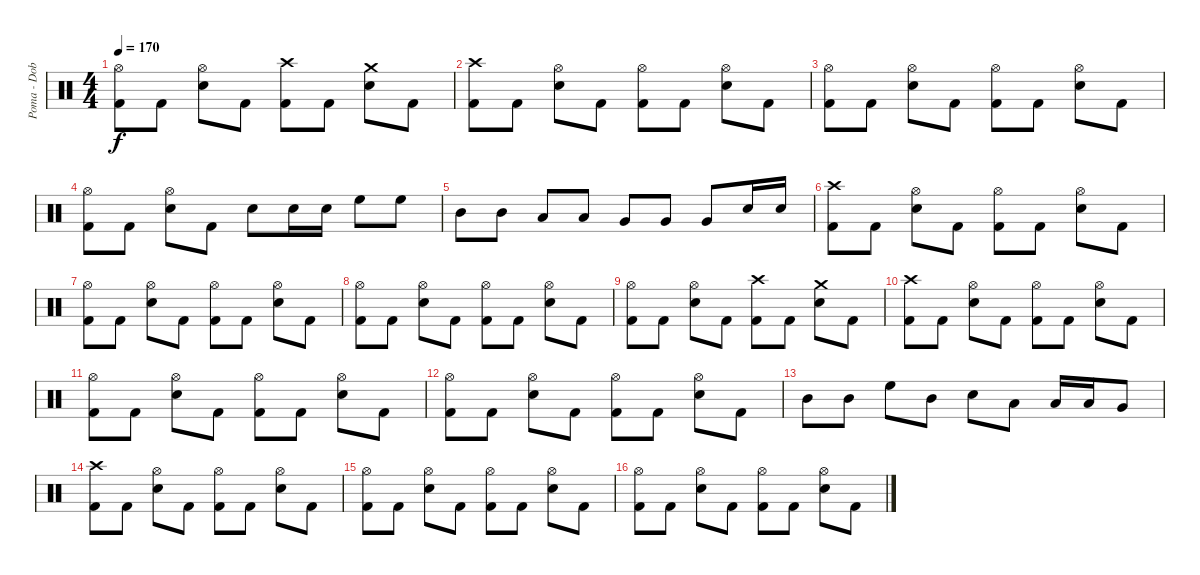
\track ("Poma - Dob" "Poma - Dob") {instrument percussion}
\staff {score}
\articulation defaults
\ts (4 4)
\tempo 170
\clef neutral
\ks c
("Hi-Hat (open)" "Kick (hit) 2").8{dy f} "Kick (hit) 2".8 ("Hi-Hat (open)" "Electric Snare (hit)").8 "Kick (hit) 2".8 ("Crash high (hit)" "Kick (hit) 2").8 "Kick (hit) 2".8 ("Crash medium (hit)" "Electric Snare (hit)").8 "Kick (hit) 2".8 |
("Crash high (hit)" "Kick (hit) 2").8 "Kick (hit) 2".8 ("Hi-Hat (open)" "Electric Snare (hit)").8 "Kick (hit) 2".8 ("Hi-Hat (open)" "Kick (hit) 2").8 "Kick (hit) 2".8 ("Hi-Hat (open)" "Electric Snare (hit)").8 "Kick (hit) 2".8 |
("Hi-Hat (open)" "Kick (hit) 2").8 "Kick (hit) 2".8 ("Hi-Hat (open)" "Electric Snare (hit)").8 "Kick (hit) 2".8 ("Hi-Hat (open)" "Kick (hit) 2").8 "Kick (hit) 2".8 ("Hi-Hat (open)" "Electric Snare (hit)").8 "Kick (hit) 2".8 |
("Hi-Hat (open)" "Kick (hit) 2").8 "Kick (hit) 2".8 ("Hi-Hat (open)" "Electric Snare (hit)").8 "Kick (hit) 2".8 "Electric Snare (hit)".8 "Electric Snare (hit)".16 "Electric Snare (hit)".16 "High Floor Tom (hit)".8 "High Floor Tom (hit)".8 |
"Mid Tom (hit)".8 "Mid Tom (hit)".8 "Low Tom (hit)".8 "Low Tom (hit)".8 "Very Low Tom (hit)".8 "Very Low Tom (hit)".8 "Very Low Tom (hit)".8 "Electric Snare (hit)".16 "Electric Snare (hit)".16 |
("Crash high (hit)" "Kick (hit) 2").8 "Kick (hit) 2".8 ("Hi-Hat (open)" "Electric Snare (hit)").8 "Kick (hit) 2".8 ("Hi-Hat (open)" "Kick (hit) 2").8 "Kick (hit) 2".8 ("Hi-Hat (open)" "Electric Snare (hit)").8 "Kick (hit) 2".8 |
("Hi-Hat (open)" "Kick (hit) 2").8 "Kick (hit) 2".8 ("Hi-Hat (open)" "Electric Snare (hit)").8 "Kick (hit) 2".8 ("Hi-Hat (open)" "Kick (hit) 2").8 "Kick (hit) 2".8 ("Hi-Hat (open)" "Electric Snare (hit)").8 "Kick (hit) 2".8 |
("Hi-Hat (open)" "Kick (hit) 2").8 "Kick (hit) 2".8 ("Hi-Hat (open)" "Electric Snare (hit)").8 "Kick (hit) 2".8 ("Hi-Hat (open)" "Kick (hit) 2").8 "Kick (hit) 2".8 ("Hi-Hat (open)" "Electric Snare (hit)").8 "Kick (hit) 2".8 |
("Hi-Hat (open)" "Kick (hit) 2").8 "Kick (hit) 2".8 ("Hi-Hat (open)" "Electric Snare (hit)").8 "Kick (hit) 2".8 ("Crash high (hit)" "Kick (hit) 2").8 "Kick (hit) 2".8 ("Crash medium (hit)" "Electric Snare (hit)").8 "Kick (hit) 2".8 |
("Crash high (hit)" "Kick (hit) 2").8 "Kick (hit) 2".8 ("Hi-Hat (open)" "Electric Snare (hit)").8 "Kick (hit) 2".8 ("Hi-Hat (open)" "Kick (hit) 2").8 "Kick (hit) 2".8 ("Hi-Hat (open)" "Electric Snare (hit)").8 "Kick (hit) 2".8 |
("Hi-Hat (open)" "Kick (hit) 2").8 "Kick (hit) 2".8 ("Hi-Hat (open)" "Electric Snare (hit)").8 "Kick (hit) 2".8 ("Hi-Hat (open)" "Kick (hit) 2").8 "Kick (hit) 2".8 ("Hi-Hat (open)" "Electric Snare (hit)").8 "Kick (hit) 2".8 |
("Hi-Hat (open)" "Kick (hit) 2").8 "Kick (hit) 2".8 ("Hi-Hat (open)" "Electric Snare (hit)").8 "Kick (hit) 2".8 ("Hi-Hat (open)" "Kick (hit) 2").8 "Kick (hit) 2".8 ("Hi-Hat (open)" "Electric Snare (hit)").8 "Kick (hit) 2".8 |
"Mid Tom (hit)".8 "Mid Tom (hit)".8 "High Floor Tom (hit)".8 "Mid Tom (hit)".8 "Electric Snare (hit)".8 "Low Tom (hit)".8 "Low Tom (hit)".16 "Low Tom (hit)".16 "Very Low Tom (hit)".8 |
("Crash high (hit)" "Kick (hit) 2").8 "Kick (hit) 2".8 ("Hi-Hat (open)" "Electric Snare (hit)").8 "Kick (hit) 2".8 ("Hi-Hat (open)" "Kick (hit) 2").8 "Kick (hit) 2".8 ("Hi-Hat (open)" "Electric Snare (hit)").8 "Kick (hit) 2".8 |
("Hi-Hat (open)" "Kick (hit) 2").8 "Kick (hit) 2".8 ("Hi-Hat (open)" "Electric Snare (hit)").8 "Kick (hit) 2".8 ("Hi-Hat (open)" "Kick (hit) 2").8 "Kick (hit) 2".8 ("Hi-Hat (open)" "Electric Snare (hit)").8 "Kick (hit) 2".8 |
("Hi-Hat (open)" "Kick (hit) 2").8 "Kick (hit) 2".8 ("Hi-Hat (open)" "Electric Snare (hit)").8 "Kick (hit) 2".8 ("Hi-Hat (open)" "Kick (hit) 2").8 "Kick (hit) 2".8 ("Hi-Hat (open)" "Electric Snare (hit)").8 "Kick (hit) 2".8
